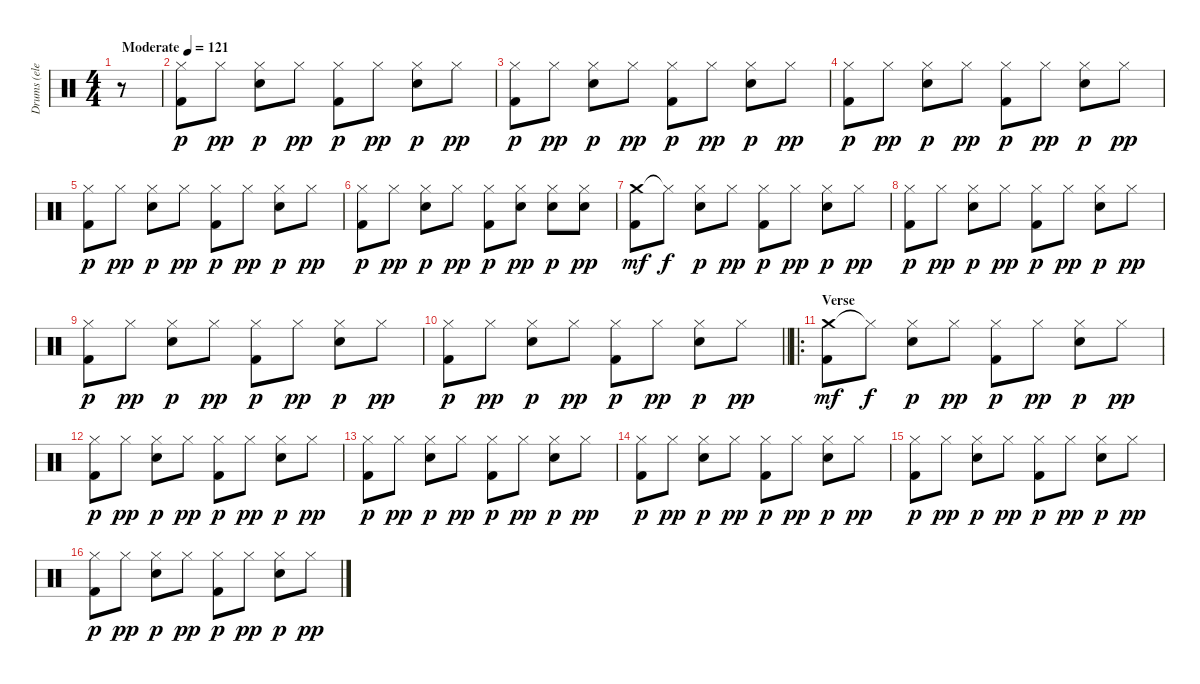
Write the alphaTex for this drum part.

\track ("Drums (electric)" "Drums (ele") {instrument percussion}
\staff {score}
\articulation defaults
\ts (4 4)
\tempo (121 "Moderate")
\clef neutral
\ks c
r.8{dy p} |
("Hi-Hat (closed)" "Kick (hit) 2").8 "Hi-Hat (closed)".8{dy pp} ("Hi-Hat (closed)" "Snare (hit) 2").8{dy p} "Hi-Hat (closed)".8{dy pp} ("Hi-Hat (closed)" "Kick (hit) 2").8{dy p} "Hi-Hat (closed)".8{dy pp} ("Hi-Hat (closed)" "Snare (hit) 2").8{dy p} "Hi-Hat (closed)".8{dy pp} |
("Hi-Hat (closed)" "Kick (hit) 2").8{dy p} "Hi-Hat (closed)".8{dy pp} ("Hi-Hat (closed)" "Snare (hit) 2").8{dy p} "Hi-Hat (closed)".8{dy pp} ("Hi-Hat (closed)" "Kick (hit) 2").8{dy p} "Hi-Hat (closed)".8{dy pp} ("Hi-Hat (closed)" "Snare (hit) 2").8{dy p} "Hi-Hat (closed)".8{dy pp} |
("Hi-Hat (closed)" "Kick (hit) 2").8{dy p} "Hi-Hat (closed)".8{dy pp} ("Hi-Hat (closed)" "Snare (hit) 2").8{dy p} "Hi-Hat (closed)".8{dy pp} ("Hi-Hat (closed)" "Kick (hit) 2").8{dy p} "Hi-Hat (closed)".8{dy pp} ("Hi-Hat (closed)" "Snare (hit) 2").8{dy p} "Hi-Hat (closed)".8{dy pp} |
("Hi-Hat (closed)" "Kick (hit) 2").8{dy p} "Hi-Hat (closed)".8{dy pp} ("Hi-Hat (closed)" "Snare (hit) 2").8{dy p} "Hi-Hat (closed)".8{dy pp} ("Hi-Hat (closed)" "Kick (hit) 2").8{dy p} "Hi-Hat (closed)".8{dy pp} ("Hi-Hat (closed)" "Snare (hit) 2").8{dy p} "Hi-Hat (closed)".8{dy pp} |
("Hi-Hat (closed)" "Kick (hit) 2").8{dy p} "Hi-Hat (closed)".8{dy pp} ("Hi-Hat (closed)" "Snare (hit) 2").8{dy p} "Hi-Hat (closed)".8{dy pp} ("Hi-Hat (closed)" "Kick (hit) 2").8{dy p} ("Hi-Hat (closed)" "Snare (hit) 2").8{dy pp} ("Hi-Hat (closed)" "Snare (hit) 2").8{dy p} ("Hi-Hat (closed)" "Snare (hit) 2").8{dy pp} |
("Crash medium (hit)" "Kick (hit) 2").8{dy mf} "Hi-Hat (closed)"{t}.8{dy f} ("Hi-Hat (closed)" "Snare (hit) 2").8{dy p} "Hi-Hat (closed)".8{dy pp} ("Hi-Hat (closed)" "Kick (hit) 2").8{dy p} "Hi-Hat (closed)".8{dy pp} ("Hi-Hat (closed)" "Snare (hit) 2").8{dy p} "Hi-Hat (closed)".8{dy pp} |
("Hi-Hat (closed)" "Kick (hit) 2").8{dy p} "Hi-Hat (closed)".8{dy pp} ("Hi-Hat (closed)" "Snare (hit) 2").8{dy p} "Hi-Hat (closed)".8{dy pp} ("Hi-Hat (closed)" "Kick (hit) 2").8{dy p} "Hi-Hat (closed)".8{dy pp} ("Hi-Hat (closed)" "Snare (hit) 2").8{dy p} "Hi-Hat (closed)".8{dy pp} |
("Hi-Hat (closed)" "Kick (hit) 2").8{dy p} "Hi-Hat (closed)".8{dy pp} ("Hi-Hat (closed)" "Snare (hit) 2").8{dy p} "Hi-Hat (closed)".8{dy pp} ("Hi-Hat (closed)" "Kick (hit) 2").8{dy p} "Hi-Hat (closed)".8{dy pp} ("Hi-Hat (closed)" "Snare (hit) 2").8{dy p} "Hi-Hat (closed)".8{dy pp} |
\barLineRight lightlight
("Hi-Hat (closed)" "Kick (hit) 2").8{dy p} "Hi-Hat (closed)".8{dy pp} ("Hi-Hat (closed)" "Snare (hit) 2").8{dy p} "Hi-Hat (closed)".8{dy pp} ("Hi-Hat (closed)" "Kick (hit) 2").8{dy p} "Hi-Hat (closed)".8{dy pp} ("Hi-Hat (closed)" "Snare (hit) 2").8{dy p} "Hi-Hat (closed)".8{dy pp} |
\ro
\section ("" "Verse")
("Crash medium (hit)" "Kick (hit) 2").8{dy mf} "Hi-Hat (closed)"{t}.8{dy f} ("Hi-Hat (closed)" "Snare (hit) 2").8{dy p} "Hi-Hat (closed)".8{dy pp} ("Hi-Hat (closed)" "Kick (hit) 2").8{dy p} "Hi-Hat (closed)".8{dy pp} ("Hi-Hat (closed)" "Snare (hit) 2").8{dy p} "Hi-Hat (closed)".8{dy pp} |
("Hi-Hat (closed)" "Kick (hit) 2").8{dy p} "Hi-Hat (closed)".8{dy pp} ("Hi-Hat (closed)" "Snare (hit) 2").8{dy p} "Hi-Hat (closed)".8{dy pp} ("Hi-Hat (closed)" "Kick (hit) 2").8{dy p} "Hi-Hat (closed)".8{dy pp} ("Hi-Hat (closed)" "Snare (hit) 2").8{dy p} "Hi-Hat (closed)".8{dy pp} |
("Hi-Hat (closed)" "Kick (hit) 2").8{dy p} "Hi-Hat (closed)".8{dy pp} ("Hi-Hat (closed)" "Snare (hit) 2").8{dy p} "Hi-Hat (closed)".8{dy pp} ("Hi-Hat (closed)" "Kick (hit) 2").8{dy p} "Hi-Hat (closed)".8{dy pp} ("Hi-Hat (closed)" "Snare (hit) 2").8{dy p} "Hi-Hat (closed)".8{dy pp} |
("Hi-Hat (closed)" "Kick (hit) 2").8{dy p} "Hi-Hat (closed)".8{dy pp} ("Hi-Hat (closed)" "Snare (hit) 2").8{dy p} "Hi-Hat (closed)".8{dy pp} ("Hi-Hat (closed)" "Kick (hit) 2").8{dy p} "Hi-Hat (closed)".8{dy pp} ("Hi-Hat (closed)" "Snare (hit) 2").8{dy p} "Hi-Hat (closed)".8{dy pp} |
("Hi-Hat (closed)" "Kick (hit) 2").8{dy p} "Hi-Hat (closed)".8{dy pp} ("Hi-Hat (closed)" "Snare (hit) 2").8{dy p} "Hi-Hat (closed)".8{dy pp} ("Hi-Hat (closed)" "Kick (hit) 2").8{dy p} "Hi-Hat (closed)".8{dy pp} ("Hi-Hat (closed)" "Snare (hit) 2").8{dy p} "Hi-Hat (closed)".8{dy pp} |
("Hi-Hat (closed)" "Kick (hit) 2").8{dy p} "Hi-Hat (closed)".8{dy pp} ("Hi-Hat (closed)" "Snare (hit) 2").8{dy p} "Hi-Hat (closed)".8{dy pp} ("Hi-Hat (closed)" "Kick (hit) 2").8{dy p} "Hi-Hat (closed)".8{dy pp} ("Hi-Hat (closed)" "Snare (hit) 2").8{dy p} "Hi-Hat (closed)".8{dy pp}
